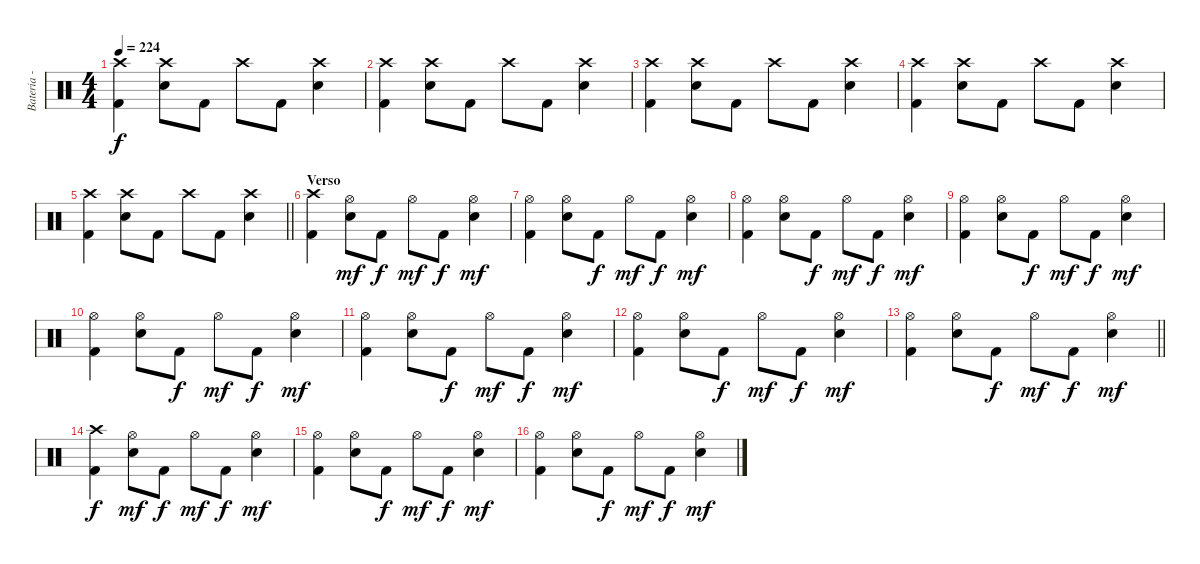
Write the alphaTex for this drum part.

\track ("Bateria - Larzon" "Bateria - ") {instrument percussion}
\staff {score}
\articulation defaults
\ts (4 4)
\tempo 224
\clef neutral
\ks c
("Kick (hit) 2" "Crash high (hit)").4{dy f} ("Electric Snare (hit)" "Crash high (hit)").8 "Kick (hit) 2".8 "Crash high (hit)".8 "Kick (hit) 2".8 ("Electric Snare (hit)" "Crash high (hit)").4 |
("Kick (hit) 2" "Crash high (hit)").4 ("Electric Snare (hit)" "Crash high (hit)").8 "Kick (hit) 2".8 "Crash high (hit)".8 "Kick (hit) 2".8 ("Electric Snare (hit)" "Crash high (hit)").4 |
("Kick (hit) 2" "Crash high (hit)").4 ("Electric Snare (hit)" "Crash high (hit)").8 "Kick (hit) 2".8 "Crash high (hit)".8 "Kick (hit) 2".8 ("Electric Snare (hit)" "Crash high (hit)").4 |
("Kick (hit) 2" "Crash high (hit)").4 ("Electric Snare (hit)" "Crash high (hit)").8 "Kick (hit) 2".8 "Crash high (hit)".8 "Kick (hit) 2".8 ("Electric Snare (hit)" "Crash high (hit)").4 |
\barLineRight lightlight
("Kick (hit) 2" "Crash high (hit)").4 ("Electric Snare (hit)" "Crash high (hit)").8 "Kick (hit) 2".8 "Crash high (hit)".8 "Kick (hit) 2".8 ("Electric Snare (hit)" "Crash high (hit)").4 |
\section ("" "Verso ")
("Kick (hit) 2" "Crash high (hit)").4 ("Electric Snare (hit)" "Hi-Hat (open)").8{dy mf} "Kick (hit) 2".8{dy f} "Hi-Hat (open)".8{dy mf} "Kick (hit) 2".8{dy f} ("Electric Snare (hit)" "Hi-Hat (open)").4{dy mf} |
("Kick (hit) 2" "Hi-Hat (open)").4 ("Electric Snare (hit)" "Hi-Hat (open)").8 "Kick (hit) 2".8{dy f} "Hi-Hat (open)".8{dy mf} "Kick (hit) 2".8{dy f} ("Electric Snare (hit)" "Hi-Hat (open)").4{dy mf} |
("Kick (hit) 2" "Hi-Hat (open)").4 ("Electric Snare (hit)" "Hi-Hat (open)").8 "Kick (hit) 2".8{dy f} "Hi-Hat (open)".8{dy mf} "Kick (hit) 2".8{dy f} ("Electric Snare (hit)" "Hi-Hat (open)").4{dy mf} |
("Kick (hit) 2" "Hi-Hat (open)").4 ("Electric Snare (hit)" "Hi-Hat (open)").8 "Kick (hit) 2".8{dy f} "Hi-Hat (open)".8{dy mf} "Kick (hit) 2".8{dy f} ("Electric Snare (hit)" "Hi-Hat (open)").4{dy mf} |
("Kick (hit) 2" "Hi-Hat (open)").4 ("Electric Snare (hit)" "Hi-Hat (open)").8 "Kick (hit) 2".8{dy f} "Hi-Hat (open)".8{dy mf} "Kick (hit) 2".8{dy f} ("Electric Snare (hit)" "Hi-Hat (open)").4{dy mf} |
("Kick (hit) 2" "Hi-Hat (open)").4 ("Electric Snare (hit)" "Hi-Hat (open)").8 "Kick (hit) 2".8{dy f} "Hi-Hat (open)".8{dy mf} "Kick (hit) 2".8{dy f} ("Electric Snare (hit)" "Hi-Hat (open)").4{dy mf} |
("Kick (hit) 2" "Hi-Hat (open)").4 ("Electric Snare (hit)" "Hi-Hat (open)").8 "Kick (hit) 2".8{dy f} "Hi-Hat (open)".8{dy mf} "Kick (hit) 2".8{dy f} ("Electric Snare (hit)" "Hi-Hat (open)").4{dy mf} |
\barLineRight lightlight
("Kick (hit) 2" "Hi-Hat (open)").4 ("Electric Snare (hit)" "Hi-Hat (open)").8 "Kick (hit) 2".8{dy f} "Hi-Hat (open)".8{dy mf} "Kick (hit) 2".8{dy f} ("Electric Snare (hit)" "Hi-Hat (open)").4{dy mf} |
("Kick (hit) 2" "Crash high (hit)").4{dy f} ("Electric Snare (hit)" "Hi-Hat (open)").8{dy mf} "Kick (hit) 2".8{dy f} "Hi-Hat (open)".8{dy mf} "Kick (hit) 2".8{dy f} ("Electric Snare (hit)" "Hi-Hat (open)").4{dy mf} |
("Kick (hit) 2" "Hi-Hat (open)").4 ("Electric Snare (hit)" "Hi-Hat (open)").8 "Kick (hit) 2".8{dy f} "Hi-Hat (open)".8{dy mf} "Kick (hit) 2".8{dy f} ("Electric Snare (hit)" "Hi-Hat (open)").4{dy mf} |
("Kick (hit) 2" "Hi-Hat (open)").4 ("Electric Snare (hit)" "Hi-Hat (open)").8 "Kick (hit) 2".8{dy f} "Hi-Hat (open)".8{dy mf} "Kick (hit) 2".8{dy f} ("Electric Snare (hit)" "Hi-Hat (open)").4{dy mf}
